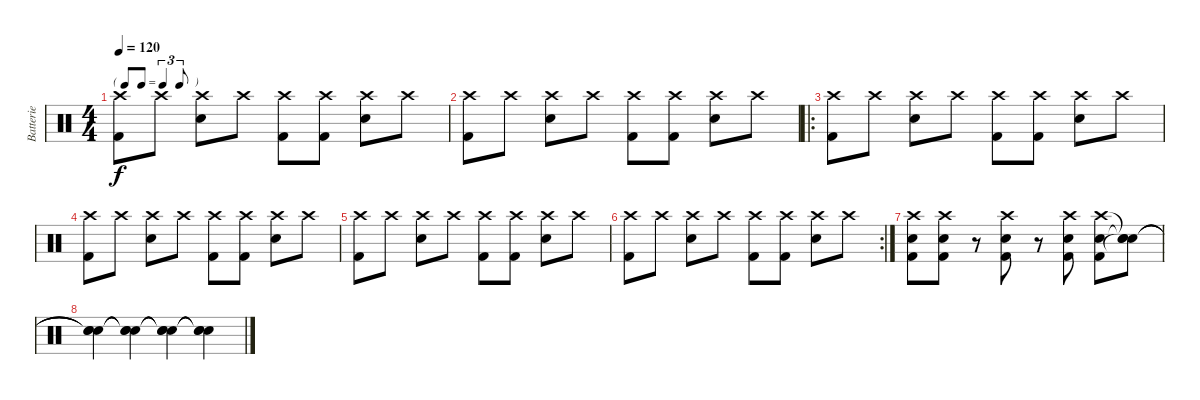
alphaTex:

\track ("Batterie" "Batterie") {instrument percussion}
\staff {score}
\articulation defaults
\ts (4 4)
\tf triplet8th
\tempo 120
\clef neutral
\ks c
("Crash high (hit)" "Kick (hit) 2").8{dy f} "Crash high (hit)".8 ("Snare (hit) 2" "Crash high (hit)").8 "Crash high (hit)".8 ("Kick (hit) 2" "Crash high (hit)").8 ("Crash high (hit)" "Kick (hit) 2").8 ("Snare (hit) 2" "Crash high (hit)").8 "Crash high (hit)".8 |
("Crash high (hit)" "Kick (hit) 2").8 "Crash high (hit)".8 ("Snare (hit) 2" "Crash high (hit)").8 "Crash high (hit)".8 ("Kick (hit) 2" "Crash high (hit)").8 ("Crash high (hit)" "Kick (hit) 2").8 ("Snare (hit) 2" "Crash high (hit)").8 "Crash high (hit)".8 |
\ro
("Crash high (hit)" "Kick (hit) 2").8 "Crash high (hit)".8 ("Snare (hit) 2" "Crash high (hit)").8 "Crash high (hit)".8 ("Kick (hit) 2" "Crash high (hit)").8 ("Crash high (hit)" "Kick (hit) 2").8 ("Snare (hit) 2" "Crash high (hit)").8 "Crash high (hit)".8 |
("Crash high (hit)" "Kick (hit) 2").8 "Crash high (hit)".8 ("Snare (hit) 2" "Crash high (hit)").8 "Crash high (hit)".8 ("Kick (hit) 2" "Crash high (hit)").8 ("Crash high (hit)" "Kick (hit) 2").8 ("Snare (hit) 2" "Crash high (hit)").8 "Crash high (hit)".8 |
("Crash high (hit)" "Kick (hit) 2").8 "Crash high (hit)".8 ("Snare (hit) 2" "Crash high (hit)").8 "Crash high (hit)".8 ("Kick (hit) 2" "Crash high (hit)").8 ("Crash high (hit)" "Kick (hit) 2").8 ("Snare (hit) 2" "Crash high (hit)").8 "Crash high (hit)".8 |
\rc 2
("Crash high (hit)" "Kick (hit) 2").8 "Crash high (hit)".8 ("Snare (hit) 2" "Crash high (hit)").8 "Crash high (hit)".8 ("Kick (hit) 2" "Crash high (hit)").8 ("Crash high (hit)" "Kick (hit) 2").8 ("Snare (hit) 2" "Crash high (hit)").8 "Crash high (hit)".8 |
("Kick (hit) 2" "Snare (hit) 2" "Crash high (hit)").8 ("Kick (hit) 2" "Snare (hit) 2" "Crash high (hit)").8 r.8 ("Kick (hit) 2" "Snare (hit) 2" "Crash high (hit)").8 r.8 ("Kick (hit) 2" "Snare (hit) 2" "Crash high (hit)").8 ("Kick (hit) 2" "Snare (hit) 2" "Crash high (hit)").8 ("Snare (hit)"{t} "Snare (hit)"{t} "Snare (hit)"{t}).8 |
("Snare (hit)"{t} "Snare (hit)"{t} "Snare (hit)"{t}).4 ("Snare (hit)"{t} "Snare (hit)"{t} "Snare (hit)"{t}).4 ("Snare (hit)"{t} "Snare (hit)"{t} "Snare (hit)"{t}).4 ("Snare (hit)"{t} "Snare (hit)"{t} "Snare (hit)"{t}).4
